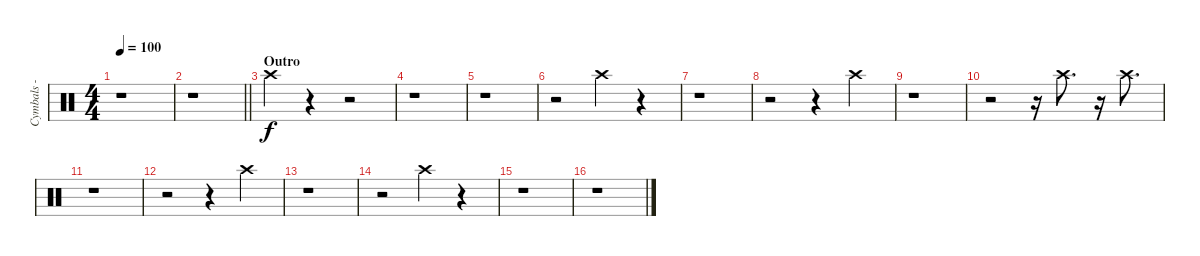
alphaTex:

\track ("Cymbals - crash - right" "Cymbals - ") {instrument percussion}
\staff {score}
\articulation defaults
\ts (4 4)
\tempo 100
\clef neutral
\ks c
r.1{dy f} |
\barLineRight lightlight
r.1 |
\section ("" "Outro")
"Crash high (hit)".4 r.4 r.2 |
r.1 |
r.1 |
r.2 "Crash high (hit)".4 r.4 |
r.1 |
r.2 r.4 "Crash high (hit)".4 |
r.1 |
r.2 r.16 "Crash high (hit)".8{d} r.16 "Crash high (hit)".8{d} |
r.1 |
r.2 r.4 "Crash high (hit)".4 |
r.1 |
r.2 "Crash high (hit)".4 r.4 |
r.1 |
r.1
